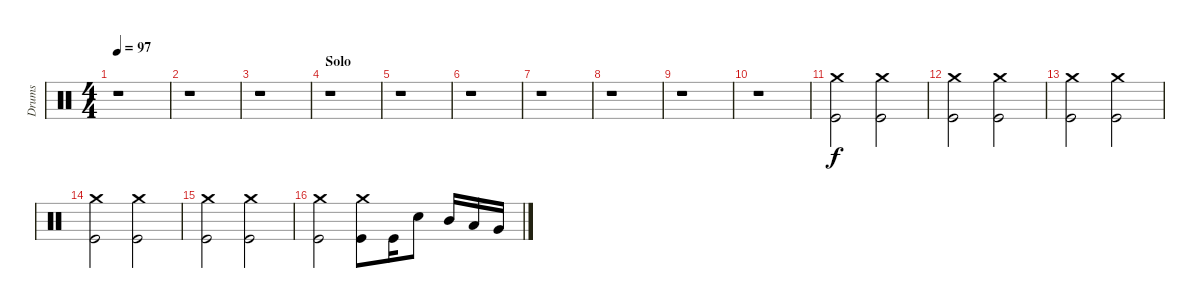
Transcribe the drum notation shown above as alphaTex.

\track ("Drums " "Drums ") {instrument percussion}
\staff {score}
\articulation defaults
\ts (4 4)
\tempo 97
\clef neutral
\ks c
r.1{dy f} |
r.1 |
r.1 |
\section ("" "Solo")
r.1 |
r.1 |
r.1 |
r.1 |
r.1 |
r.1 |
r.1 |
("Crash medium (hit)" "Kick (hit)").2 ("Crash medium (hit)" "Kick (hit)").2 |
("Crash medium (hit)" "Kick (hit)").2 ("Crash medium (hit)" "Kick (hit)").2 |
("Crash medium (hit)" "Kick (hit)").2 ("Crash medium (hit)" "Kick (hit)").2 |
("Crash medium (hit)" "Kick (hit)").2 ("Crash medium (hit)" "Kick (hit)").2 |
("Crash medium (hit)" "Kick (hit)").2 ("Crash medium (hit)" "Kick (hit)").2 |
("Crash medium (hit)" "Kick (hit)").2 ("Crash medium (hit)" "Kick (hit)").8 "Kick (hit)".16 "Electric Snare (hit)".8 "Mid Tom (hit)".16 "Low Tom (hit)".16 "Very Low Tom (hit)".16
